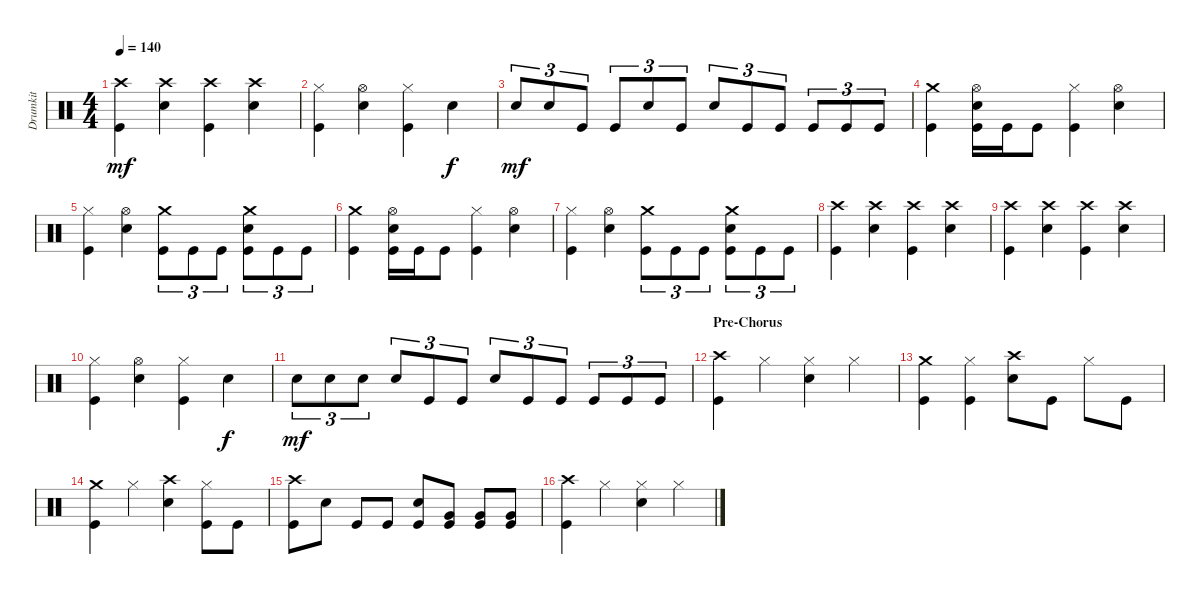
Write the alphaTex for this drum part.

\track ("Drumkit" "Drumkit") {instrument percussion}
\staff {score}
\articulation defaults
\ts (4 4)
\tempo 140
\clef neutral
\ks c
("Kick (hit)" "Crash high (hit)").4{dy mf} ("Snare (hit) 2" "Crash high (hit)").4 ("Kick (hit)" "Crash high (hit)").4 ("Snare (hit) 2" "Crash high (hit)").4 |
("Kick (hit)" "Hi-Hat (closed)").4 ("Snare (hit) 2" "Hi-Hat (open)").4 ("Kick (hit)" "Hi-Hat (closed)").4 "Snare (hit) 2".4{dy f} |
"Snare (hit) 2".8{tu (3 2) dy mf} "Snare (hit) 2".8{tu (3 2)} "Kick (hit)".8{tu (3 2)} "Kick (hit)".8{tu (3 2)} "Snare (hit) 2".8{tu (3 2)} "Kick (hit)".8{tu (3 2)} "Snare (hit) 2".8{tu (3 2)} "Kick (hit)".8{tu (3 2)} "Kick (hit)".8{tu (3 2)} "Kick (hit)".8{tu (3 2)} "Kick (hit)".8{tu (3 2)} "Kick (hit)".8{tu (3 2)} |
("Kick (hit)" "Crash medium (hit)").4 ("Snare (hit) 2" "Kick (hit)" "Hi-Hat (open)").16 "Kick (hit)".16 "Kick (hit)".8 ("Kick (hit)" "Hi-Hat (closed)").4 ("Snare (hit) 2" "Hi-Hat (open)").4 |
("Kick (hit)" "Hi-Hat (closed)").4 ("Snare (hit) 2" "Hi-Hat (open)").4 ("Kick (hit)" "Crash medium (hit)").8{tu (3 2)} "Kick (hit)".8{tu (3 2)} "Kick (hit)".8{tu (3 2)} ("Kick (hit)" "Snare (hit) 2" "Crash medium (hit)").8{tu (3 2)} "Kick (hit)".8{tu (3 2)} "Kick (hit)".8{tu (3 2)} |
("Kick (hit)" "Crash medium (hit)").4 ("Snare (hit) 2" "Kick (hit)" "Hi-Hat (open)").16 "Kick (hit)".16 "Kick (hit)".8 ("Kick (hit)" "Hi-Hat (closed)").4 ("Snare (hit) 2" "Hi-Hat (open)").4 |
("Kick (hit)" "Hi-Hat (closed)").4 ("Snare (hit) 2" "Hi-Hat (open)").4 ("Kick (hit)" "Crash medium (hit)").8{tu (3 2)} "Kick (hit)".8{tu (3 2)} "Kick (hit)".8{tu (3 2)} ("Kick (hit)" "Snare (hit) 2" "Crash medium (hit)").8{tu (3 2)} "Kick (hit)".8{tu (3 2)} "Kick (hit)".8{tu (3 2)} |
("Kick (hit)" "Crash high (hit)").4 ("Snare (hit) 2" "Crash high (hit)").4 ("Kick (hit)" "Crash high (hit)").4 ("Snare (hit) 2" "Crash high (hit)").4 |
("Kick (hit)" "Crash high (hit)").4 ("Snare (hit) 2" "Crash high (hit)").4 ("Kick (hit)" "Crash high (hit)").4 ("Snare (hit) 2" "Crash high (hit)").4 |
("Kick (hit)" "Hi-Hat (closed)").4 ("Snare (hit) 2" "Hi-Hat (open)").4 ("Kick (hit)" "Hi-Hat (closed)").4 "Snare (hit) 2".4{dy f} |
"Snare (hit) 2".8{tu (3 2) dy mf} "Snare (hit) 2".8{tu (3 2)} "Snare (hit) 2".8{tu (3 2)} "Snare (hit) 2".8{tu (3 2)} "Kick (hit)".8{tu (3 2)} "Kick (hit)".8{tu (3 2)} "Snare (hit) 2".8{tu (3 2)} "Kick (hit)".8{tu (3 2)} "Kick (hit)".8{tu (3 2)} "Kick (hit)".8{tu (3 2)} "Kick (hit)".8{tu (3 2)} "Kick (hit)".8{tu (3 2)} |
\section ("" "Pre-Chorus")
("Kick (hit)" "Crash high (hit)").4 "Hi-Hat (closed)".4 ("Snare (hit) 2" "Hi-Hat (closed)").4 "Hi-Hat (closed)".4 |
("Kick (hit)" "Crash medium (hit)").4 ("Kick (hit)" "Hi-Hat (closed)").4 ("Snare (hit) 2" "Crash high (hit)").8 "Kick (hit)".8 "Hi-Hat (closed)".8 "Kick (hit)".8 |
("Kick (hit)" "Crash medium (hit)").4 "Hi-Hat (closed)".4 ("Snare (hit) 2" "Crash high (hit)").4 ("Hi-Hat (closed)" "Kick (hit)").8 "Kick (hit)".8 |
("Kick (hit)" "Crash high (hit)").8 "Snare (hit) 2".8 "Kick (hit)".8 "Kick (hit)".8 ("Kick (hit)" "Snare (hit) 2").8 ("Kick (hit)" "Very Low Tom (hit)").8 ("Kick (hit)" "Very Low Tom (hit)").8 ("Kick (hit)" "Very Low Tom (hit)").8 |
("Kick (hit)" "Crash high (hit)").4 "Hi-Hat (closed)".4 ("Snare (hit) 2" "Hi-Hat (closed)").4 "Hi-Hat (closed)".4
